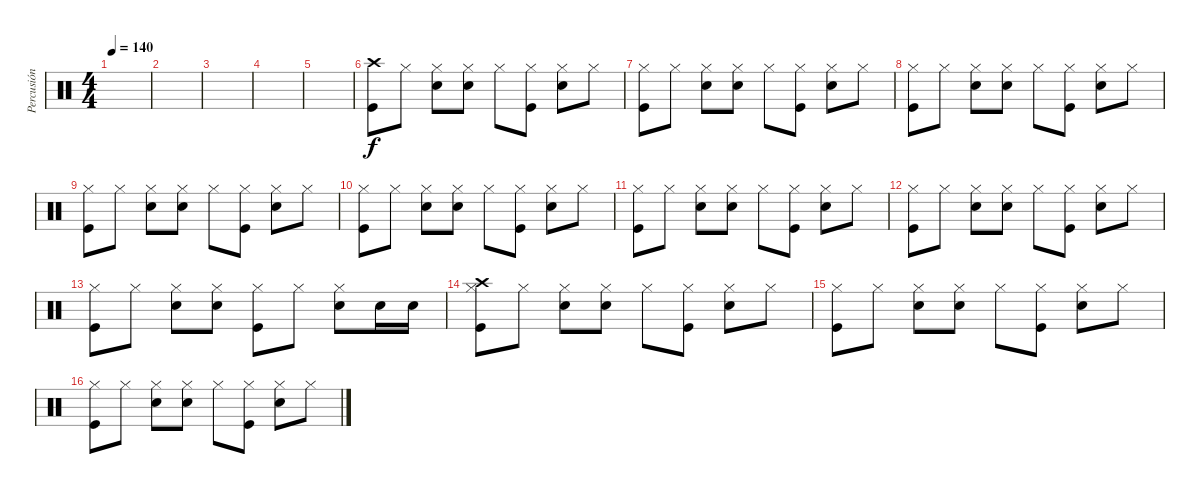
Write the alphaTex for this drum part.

\track ("Percusión" "Percusión") {instrument percussion}
\staff {score}
\articulation defaults
\ts (4 4)
\tempo 140
\clef neutral
\ks c
|
|
|
|
|
("Crash high (hit)" "Kick (hit)").8 "Hi-Hat (closed)".8 ("Snare (hit) 2" "Hi-Hat (closed)").8 ("Hi-Hat (closed)" "Snare (hit) 2").8 "Hi-Hat (closed)".8 ("Kick (hit)" "Hi-Hat (closed)").8 ("Snare (hit) 2" "Hi-Hat (closed)").8 "Hi-Hat (closed)".8 |
("Hi-Hat (closed)" "Kick (hit)").8 "Hi-Hat (closed)".8 ("Snare (hit) 2" "Hi-Hat (closed)").8 ("Hi-Hat (closed)" "Snare (hit) 2").8 "Hi-Hat (closed)".8 ("Kick (hit)" "Hi-Hat (closed)").8 ("Snare (hit) 2" "Hi-Hat (closed)").8 "Hi-Hat (closed)".8 |
("Hi-Hat (closed)" "Kick (hit)").8 "Hi-Hat (closed)".8 ("Snare (hit) 2" "Hi-Hat (closed)").8 ("Hi-Hat (closed)" "Snare (hit) 2").8 "Hi-Hat (closed)".8 ("Kick (hit)" "Hi-Hat (closed)").8 ("Snare (hit) 2" "Hi-Hat (closed)").8 "Hi-Hat (closed)".8 |
("Hi-Hat (closed)" "Kick (hit)").8 "Hi-Hat (closed)".8 ("Snare (hit) 2" "Hi-Hat (closed)").8 ("Hi-Hat (closed)" "Snare (hit) 2").8 "Hi-Hat (closed)".8 ("Kick (hit)" "Hi-Hat (closed)").8 ("Snare (hit) 2" "Hi-Hat (closed)").8 "Hi-Hat (closed)".8 |
("Hi-Hat (closed)" "Kick (hit)").8 "Hi-Hat (closed)".8 ("Snare (hit) 2" "Hi-Hat (closed)").8 ("Hi-Hat (closed)" "Snare (hit) 2").8 "Hi-Hat (closed)".8 ("Kick (hit)" "Hi-Hat (closed)").8 ("Snare (hit) 2" "Hi-Hat (closed)").8 "Hi-Hat (closed)".8 |
("Hi-Hat (closed)" "Kick (hit)").8 "Hi-Hat (closed)".8 ("Snare (hit) 2" "Hi-Hat (closed)").8 ("Hi-Hat (closed)" "Snare (hit) 2").8 "Hi-Hat (closed)".8 ("Kick (hit)" "Hi-Hat (closed)").8 ("Snare (hit) 2" "Hi-Hat (closed)").8 "Hi-Hat (closed)".8 |
("Hi-Hat (closed)" "Kick (hit)").8 "Hi-Hat (closed)".8 ("Snare (hit) 2" "Hi-Hat (closed)").8 ("Hi-Hat (closed)" "Snare (hit) 2").8 "Hi-Hat (closed)".8 ("Kick (hit)" "Hi-Hat (closed)").8 ("Snare (hit) 2" "Hi-Hat (closed)").8 "Hi-Hat (closed)".8 |
("Hi-Hat (closed)" "Kick (hit)").8 "Hi-Hat (closed)".8 ("Snare (hit) 2" "Hi-Hat (closed)").8 ("Hi-Hat (closed)" "Snare (hit) 2").8 ("Kick (hit)" "Hi-Hat (closed)").8 "Hi-Hat (closed)".8 ("Snare (hit) 2" "Hi-Hat (closed)").8 "Snare (hit) 2".16 "Snare (hit) 2".16 |
("Hi-Hat (closed)" "Crash high (hit)" "Kick (hit)").8 "Hi-Hat (closed)".8 ("Snare (hit) 2" "Hi-Hat (closed)").8 ("Hi-Hat (closed)" "Snare (hit) 2").8 "Hi-Hat (closed)".8 ("Kick (hit)" "Hi-Hat (closed)").8 ("Snare (hit) 2" "Hi-Hat (closed)").8 "Hi-Hat (closed)".8 |
("Hi-Hat (closed)" "Kick (hit)").8 "Hi-Hat (closed)".8 ("Snare (hit) 2" "Hi-Hat (closed)").8 ("Hi-Hat (closed)" "Snare (hit) 2").8 "Hi-Hat (closed)".8 ("Kick (hit)" "Hi-Hat (closed)").8 ("Snare (hit) 2" "Hi-Hat (closed)").8 "Hi-Hat (closed)".8 |
("Hi-Hat (closed)" "Kick (hit)").8 "Hi-Hat (closed)".8 ("Snare (hit) 2" "Hi-Hat (closed)").8 ("Hi-Hat (closed)" "Snare (hit) 2").8 "Hi-Hat (closed)".8 ("Kick (hit)" "Hi-Hat (closed)").8 ("Snare (hit) 2" "Hi-Hat (closed)").8 "Hi-Hat (closed)".8
